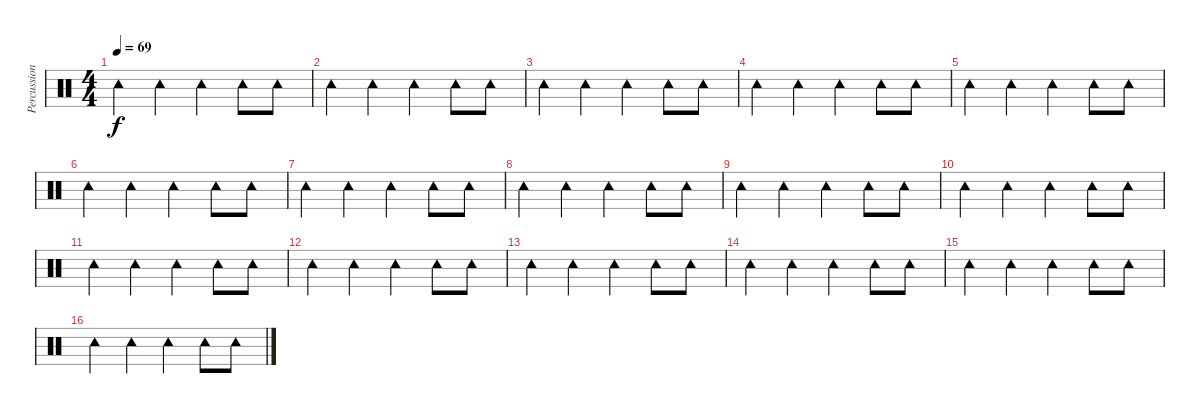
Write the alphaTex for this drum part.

\track ("Percussion" "Percussion") {instrument percussion}
\staff {score}
\articulation defaults
\ts (4 4)
\tempo 69
\clef neutral
\ks c "Tambourine (hit)".4{dy f} "Tambourine (hit)".4 "Tambourine (hit)".4 "Tambourine (hit)".8 "Tambourine (hit)".8
|
"Tambourine (hit)".4 "Tambourine (hit)".4 "Tambourine (hit)".4 "Tambourine (hit)".8 "Tambourine (hit)".8 |
"Tambourine (hit)".4 "Tambourine (hit)".4 "Tambourine (hit)".4 "Tambourine (hit)".8 "Tambourine (hit)".8 |
"Tambourine (hit)".4 "Tambourine (hit)".4 "Tambourine (hit)".4 "Tambourine (hit)".8 "Tambourine (hit)".8 |
"Tambourine (hit)".4 "Tambourine (hit)".4 "Tambourine (hit)".4 "Tambourine (hit)".8 "Tambourine (hit)".8 |
"Tambourine (hit)".4 "Tambourine (hit)".4 "Tambourine (hit)".4 "Tambourine (hit)".8 "Tambourine (hit)".8 |
"Tambourine (hit)".4 "Tambourine (hit)".4 "Tambourine (hit)".4 "Tambourine (hit)".8 "Tambourine (hit)".8 |
"Tambourine (hit)".4 "Tambourine (hit)".4 "Tambourine (hit)".4 "Tambourine (hit)".8 "Tambourine (hit)".8 |
"Tambourine (hit)".4 "Tambourine (hit)".4 "Tambourine (hit)".4 "Tambourine (hit)".8 "Tambourine (hit)".8 |
"Tambourine (hit)".4 "Tambourine (hit)".4 "Tambourine (hit)".4 "Tambourine (hit)".8 "Tambourine (hit)".8 |
"Tambourine (hit)".4 "Tambourine (hit)".4 "Tambourine (hit)".4 "Tambourine (hit)".8 "Tambourine (hit)".8 |
"Tambourine (hit)".4 "Tambourine (hit)".4 "Tambourine (hit)".4 "Tambourine (hit)".8 "Tambourine (hit)".8 |
"Tambourine (hit)".4 "Tambourine (hit)".4 "Tambourine (hit)".4 "Tambourine (hit)".8 "Tambourine (hit)".8 |
"Tambourine (hit)".4 "Tambourine (hit)".4 "Tambourine (hit)".4 "Tambourine (hit)".8 "Tambourine (hit)".8 |
"Tambourine (hit)".4 "Tambourine (hit)".4 "Tambourine (hit)".4 "Tambourine (hit)".8 "Tambourine (hit)".8 |
"Tambourine (hit)".4 "Tambourine (hit)".4 "Tambourine (hit)".4 "Tambourine (hit)".8 "Tambourine (hit)".8
